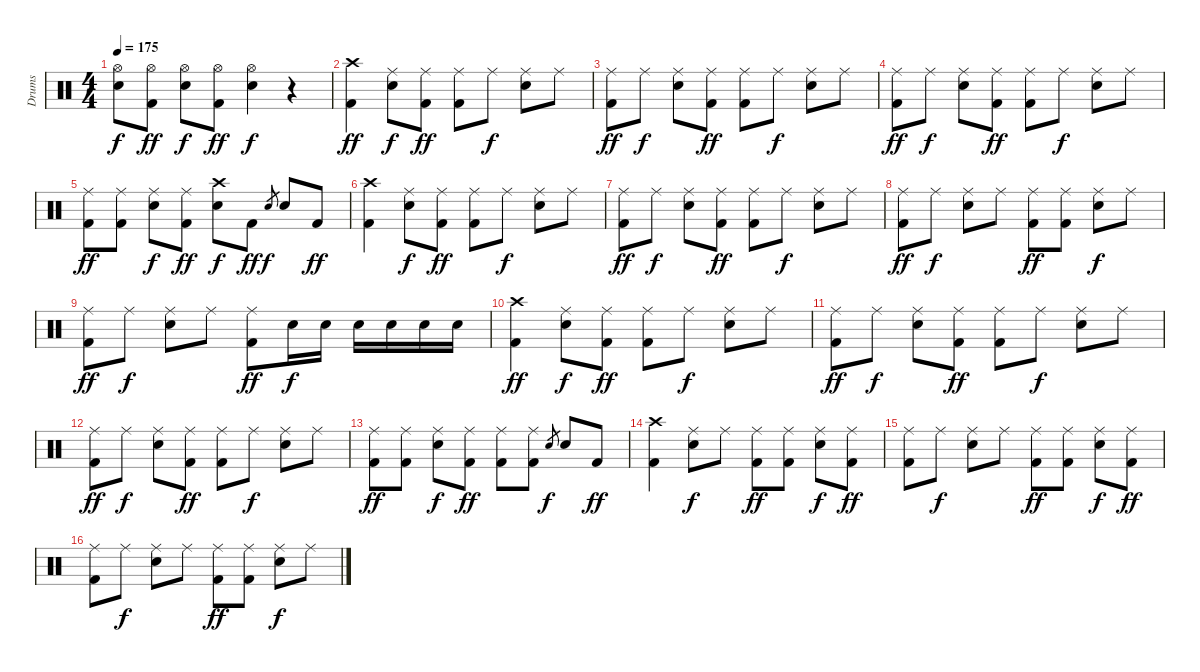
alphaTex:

\track ("Drums" "Drums") {instrument percussion}
\staff {score}
\articulation defaults
\ts (4 4)
\tempo 175
\clef neutral
\ks c
("Hi-Hat (open)" "Electric Snare (hit)").8{dy f} ("Hi-Hat (open)" "Kick (hit) 2").8{dy ff} ("Hi-Hat (open)" "Electric Snare (hit)").8{dy f} ("Hi-Hat (open)" "Kick (hit) 2").8{dy ff} ("Hi-Hat (open)" "Electric Snare (hit)").4{dy f} r.4 |
("Crash high (hit)" "Kick (hit) 2").4{dy ff} ("Ride (middle)" "Electric Snare (hit)").8{dy f} ("Ride (middle)" "Kick (hit) 2").8{dy ff} ("Ride (middle)" "Kick (hit) 2").8 "Ride (middle)".8{dy f} ("Ride (middle)" "Electric Snare (hit)").8 "Ride (middle)".8 |
("Ride (middle)" "Kick (hit) 2").8{dy ff} "Ride (middle)".8{dy f} ("Ride (middle)" "Electric Snare (hit)").8 ("Ride (middle)" "Kick (hit) 2").8{dy ff} ("Ride (middle)" "Kick (hit) 2").8 "Ride (middle)".8{dy f} ("Ride (middle)" "Electric Snare (hit)").8 "Ride (middle)".8 |
("Ride (middle)" "Kick (hit) 2").8{dy ff} "Ride (middle)".8{dy f} ("Ride (middle)" "Electric Snare (hit)").8 ("Ride (middle)" "Kick (hit) 2").8{dy ff} ("Ride (middle)" "Kick (hit) 2").8 "Ride (middle)".8{dy f} ("Ride (middle)" "Electric Snare (hit)").8 "Ride (middle)".8 |
("Ride (middle)" "Kick (hit) 2").8{dy ff} ("Ride (middle)" "Kick (hit) 2").8 ("Ride (middle)" "Electric Snare (hit)").8{dy f} ("Ride (middle)" "Kick (hit) 2").8{dy ff} ("Crash high (hit)" "Electric Snare (hit)").8{dy f} "Kick (hit) 2".8{dy ff} "Electric Snare (hit)".8{gr dy f} "Electric Snare (hit)".8 "Kick (hit) 2".8{dy ff} |
("Crash high (hit)" "Kick (hit) 2").4 ("Ride (middle)" "Electric Snare (hit)").8{dy f} ("Ride (middle)" "Kick (hit) 2").8{dy ff} ("Ride (middle)" "Kick (hit) 2").8 "Ride (middle)".8{dy f} ("Ride (middle)" "Electric Snare (hit)").8 "Ride (middle)".8 |
("Ride (middle)" "Kick (hit) 2").8{dy ff} "Ride (middle)".8{dy f} ("Ride (middle)" "Electric Snare (hit)").8 ("Ride (middle)" "Kick (hit) 2").8{dy ff} ("Ride (middle)" "Kick (hit) 2").8 "Ride (middle)".8{dy f} ("Ride (middle)" "Electric Snare (hit)").8 "Ride (middle)".8 |
("Ride (middle)" "Kick (hit) 2").8{dy ff} "Ride (middle)".8{dy f} ("Ride (middle)" "Electric Snare (hit)").8 "Ride (middle)".8 ("Ride (middle)" "Kick (hit) 2").8{dy ff} ("Ride (middle)" "Kick (hit) 2").8 ("Ride (middle)" "Electric Snare (hit)").8{dy f} "Ride (middle)".8 |
("Ride (middle)" "Kick (hit) 2").8{dy ff} "Ride (middle)".8{dy f} ("Ride (middle)" "Electric Snare (hit)").8 "Ride (middle)".8 ("Ride (middle)" "Kick (hit) 2").8{dy ff} "Electric Snare (hit)".16{dy f} "Electric Snare (hit)".16 "Electric Snare (hit)".16 "Electric Snare (hit)".16 "Electric Snare (hit)".16 "Electric Snare (hit)".16 |
("Crash high (hit)" "Kick (hit) 2").4{dy ff} ("Ride (middle)" "Electric Snare (hit)").8{dy f} ("Ride (middle)" "Kick (hit) 2").8{dy ff} ("Ride (middle)" "Kick (hit) 2").8 "Ride (middle)".8{dy f} ("Ride (middle)" "Electric Snare (hit)").8 "Ride (middle)".8 |
("Ride (middle)" "Kick (hit) 2").8{dy ff} "Ride (middle)".8{dy f} ("Ride (middle)" "Electric Snare (hit)").8 ("Ride (middle)" "Kick (hit) 2").8{dy ff} ("Ride (middle)" "Kick (hit) 2").8 "Ride (middle)".8{dy f} ("Ride (middle)" "Electric Snare (hit)").8 "Ride (middle)".8 |
("Ride (middle)" "Kick (hit) 2").8{dy ff} "Ride (middle)".8{dy f} ("Ride (middle)" "Electric Snare (hit)").8 ("Ride (middle)" "Kick (hit) 2").8{dy ff} ("Ride (middle)" "Kick (hit) 2").8 "Ride (middle)".8{dy f} ("Ride (middle)" "Electric Snare (hit)").8 "Ride (middle)".8 |
("Ride (middle)" "Kick (hit) 2").8{dy ff} ("Ride (middle)" "Kick (hit) 2").8 ("Ride (middle)" "Electric Snare (hit)").8{dy f} ("Ride (middle)" "Kick (hit) 2").8{dy ff} ("Ride (middle)" "Kick (hit) 2").8 ("Ride (middle)" "Kick (hit) 2").8 "Electric Snare (hit)".8{gr dy f} "Electric Snare (hit)".8 "Kick (hit) 2".8{dy ff} |
("Crash high (hit)" "Kick (hit) 2").4 ("Ride (middle)" "Electric Snare (hit)").8{dy f} "Ride (middle)".8 ("Ride (middle)" "Kick (hit) 2").8{dy ff} ("Ride (middle)" "Kick (hit) 2").8 ("Ride (middle)" "Electric Snare (hit)").8{dy f} ("Ride (middle)" "Kick (hit) 2").8{dy ff} |
("Ride (middle)" "Kick (hit) 2").8 "Ride (middle)".8{dy f} ("Ride (middle)" "Electric Snare (hit)").8 "Ride (middle)".8 ("Ride (middle)" "Kick (hit) 2").8{dy ff} ("Ride (middle)" "Kick (hit) 2").8 ("Ride (middle)" "Electric Snare (hit)").8{dy f} ("Ride (middle)" "Kick (hit) 2").8{dy ff} |
("Ride (middle)" "Kick (hit) 2").8 "Ride (middle)".8{dy f} ("Ride (middle)" "Electric Snare (hit)").8 "Ride (middle)".8 ("Ride (middle)" "Kick (hit) 2").8{dy ff} ("Ride (middle)" "Kick (hit) 2").8 ("Ride (middle)" "Electric Snare (hit)").8{dy f} "Ride (middle)".8
